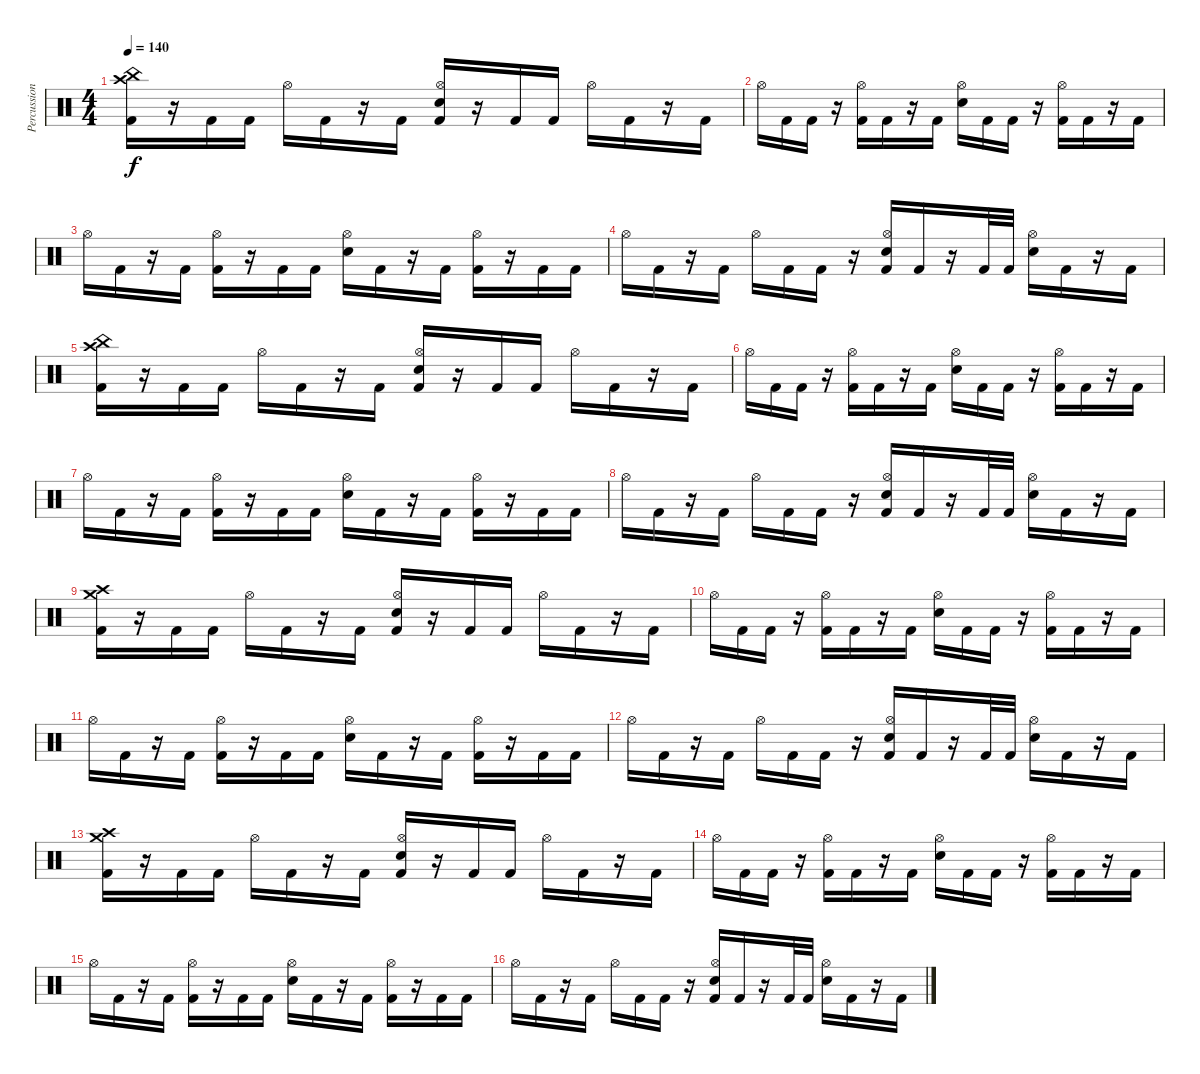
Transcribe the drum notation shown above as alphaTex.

\track ("Percussion" "Percussion") {instrument percussion}
\staff {score}
\articulation defaults
\ts (4 4)
\tempo 140
\clef neutral
\ks c
("Crash high (hit)" "China (hit)" "Kick (hit) 2").16{dy f} r.16 "Kick (hit) 2".16 "Kick (hit) 2".16 "Hi-Hat (open)".16 "Kick (hit) 2".16 r.16 "Kick (hit) 2".16 ("Hi-Hat (open)" "Snare (hit) 2" "Kick (hit) 2").16 r.16 "Kick (hit) 2".16 "Kick (hit) 2".16 "Hi-Hat (open)".16 "Kick (hit) 2".16 r.16 "Kick (hit) 2".16 |
"Hi-Hat (open)".16 "Kick (hit) 2".16 "Kick (hit) 2".16 r.16 ("Hi-Hat (open)" "Kick (hit) 2").16 "Kick (hit) 2".16 r.16 "Kick (hit) 2".16 ("Hi-Hat (open)" "Snare (hit) 2").16 "Kick (hit) 2".16 "Kick (hit) 2".16 r.16 ("Hi-Hat (open)" "Kick (hit) 2").16 "Kick (hit) 2".16 r.16 "Kick (hit) 2".16 |
"Hi-Hat (open)".16 "Kick (hit) 2".16 r.16 "Kick (hit) 2".16 ("Hi-Hat (open)" "Kick (hit) 2").16 r.16 "Kick (hit) 2".16 "Kick (hit) 2".16 ("Hi-Hat (open)" "Snare (hit) 2").16 "Kick (hit) 2".16 r.16 "Kick (hit) 2".16 ("Hi-Hat (open)" "Kick (hit) 2").16 r.16 "Kick (hit) 2".16 "Kick (hit) 2".16 |
"Hi-Hat (open)".16 "Kick (hit) 2".16 r.16 "Kick (hit) 2".16 "Hi-Hat (open)".16 "Kick (hit) 2".16 "Kick (hit) 2".16 r.16 ("Hi-Hat (open)" "Snare (hit) 2" "Kick (hit) 2").16 "Kick (hit) 2".16 r.16 "Kick (hit) 2".32 "Kick (hit) 2".32 ("Hi-Hat (open)" "Snare (hit) 2").16 "Kick (hit) 2".16 r.16 "Kick (hit) 2".16 |
("Crash high (hit)" "China (hit)" "Kick (hit) 2").16 r.16 "Kick (hit) 2".16 "Kick (hit) 2".16 "Hi-Hat (open)".16 "Kick (hit) 2".16 r.16 "Kick (hit) 2".16 ("Hi-Hat (open)" "Snare (hit) 2" "Kick (hit) 2").16 r.16 "Kick (hit) 2".16 "Kick (hit) 2".16 "Hi-Hat (open)".16 "Kick (hit) 2".16 r.16 "Kick (hit) 2".16 |
"Hi-Hat (open)".16 "Kick (hit) 2".16 "Kick (hit) 2".16 r.16 ("Hi-Hat (open)" "Kick (hit) 2").16 "Kick (hit) 2".16 r.16 "Kick (hit) 2".16 ("Hi-Hat (open)" "Snare (hit) 2").16 "Kick (hit) 2".16 "Kick (hit) 2".16 r.16 ("Hi-Hat (open)" "Kick (hit) 2").16 "Kick (hit) 2".16 r.16 "Kick (hit) 2".16 |
"Hi-Hat (open)".16 "Kick (hit) 2".16 r.16 "Kick (hit) 2".16 ("Hi-Hat (open)" "Kick (hit) 2").16 r.16 "Kick (hit) 2".16 "Kick (hit) 2".16 ("Hi-Hat (open)" "Snare (hit) 2").16 "Kick (hit) 2".16 r.16 "Kick (hit) 2".16 ("Hi-Hat (open)" "Kick (hit) 2").16 r.16 "Kick (hit) 2".16 "Kick (hit) 2".16 |
"Hi-Hat (open)".16 "Kick (hit) 2".16 r.16 "Kick (hit) 2".16 "Hi-Hat (open)".16 "Kick (hit) 2".16 "Kick (hit) 2".16 r.16 ("Hi-Hat (open)" "Snare (hit) 2" "Kick (hit) 2").16 "Kick (hit) 2".16 r.16 "Kick (hit) 2".32 "Kick (hit) 2".32 ("Hi-Hat (open)" "Snare (hit) 2").16 "Kick (hit) 2".16 r.16 "Kick (hit) 2".16 |
("Crash high (hit)" "Crash medium (hit)" "Kick (hit) 2").16 r.16 "Kick (hit) 2".16 "Kick (hit) 2".16 "Hi-Hat (open)".16 "Kick (hit) 2".16 r.16 "Kick (hit) 2".16 ("Hi-Hat (open)" "Snare (hit) 2" "Kick (hit) 2").16 r.16 "Kick (hit) 2".16 "Kick (hit) 2".16 "Hi-Hat (open)".16 "Kick (hit) 2".16 r.16 "Kick (hit) 2".16 |
"Hi-Hat (open)".16 "Kick (hit) 2".16 "Kick (hit) 2".16 r.16 ("Hi-Hat (open)" "Kick (hit) 2").16 "Kick (hit) 2".16 r.16 "Kick (hit) 2".16 ("Hi-Hat (open)" "Snare (hit) 2").16 "Kick (hit) 2".16 "Kick (hit) 2".16 r.16 ("Hi-Hat (open)" "Kick (hit) 2").16 "Kick (hit) 2".16 r.16 "Kick (hit) 2".16 |
"Hi-Hat (open)".16 "Kick (hit) 2".16 r.16 "Kick (hit) 2".16 ("Hi-Hat (open)" "Kick (hit) 2").16 r.16 "Kick (hit) 2".16 "Kick (hit) 2".16 ("Hi-Hat (open)" "Snare (hit) 2").16 "Kick (hit) 2".16 r.16 "Kick (hit) 2".16 ("Hi-Hat (open)" "Kick (hit) 2").16 r.16 "Kick (hit) 2".16 "Kick (hit) 2".16 |
"Hi-Hat (open)".16 "Kick (hit) 2".16 r.16 "Kick (hit) 2".16 "Hi-Hat (open)".16 "Kick (hit) 2".16 "Kick (hit) 2".16 r.16 ("Hi-Hat (open)" "Snare (hit) 2" "Kick (hit) 2").16 "Kick (hit) 2".16 r.16 "Kick (hit) 2".32 "Kick (hit) 2".32 ("Hi-Hat (open)" "Snare (hit) 2").16 "Kick (hit) 2".16 r.16 "Kick (hit) 2".16 |
("Crash high (hit)" "Crash medium (hit)" "Kick (hit) 2").16 r.16 "Kick (hit) 2".16 "Kick (hit) 2".16 "Hi-Hat (open)".16 "Kick (hit) 2".16 r.16 "Kick (hit) 2".16 ("Hi-Hat (open)" "Snare (hit) 2" "Kick (hit) 2").16 r.16 "Kick (hit) 2".16 "Kick (hit) 2".16 "Hi-Hat (open)".16 "Kick (hit) 2".16 r.16 "Kick (hit) 2".16 |
"Hi-Hat (open)".16 "Kick (hit) 2".16 "Kick (hit) 2".16 r.16 ("Hi-Hat (open)" "Kick (hit) 2").16 "Kick (hit) 2".16 r.16 "Kick (hit) 2".16 ("Hi-Hat (open)" "Snare (hit) 2").16 "Kick (hit) 2".16 "Kick (hit) 2".16 r.16 ("Hi-Hat (open)" "Kick (hit) 2").16 "Kick (hit) 2".16 r.16 "Kick (hit) 2".16 |
"Hi-Hat (open)".16 "Kick (hit) 2".16 r.16 "Kick (hit) 2".16 ("Hi-Hat (open)" "Kick (hit) 2").16 r.16 "Kick (hit) 2".16 "Kick (hit) 2".16 ("Hi-Hat (open)" "Snare (hit) 2").16 "Kick (hit) 2".16 r.16 "Kick (hit) 2".16 ("Hi-Hat (open)" "Kick (hit) 2").16 r.16 "Kick (hit) 2".16 "Kick (hit) 2".16 |
"Hi-Hat (open)".16 "Kick (hit) 2".16 r.16 "Kick (hit) 2".16 "Hi-Hat (open)".16 "Kick (hit) 2".16 "Kick (hit) 2".16 r.16 ("Hi-Hat (open)" "Snare (hit) 2" "Kick (hit) 2").16 "Kick (hit) 2".16 r.16 "Kick (hit) 2".32 "Kick (hit) 2".32 ("Hi-Hat (open)" "Snare (hit) 2").16 "Kick (hit) 2".16 r.16 "Kick (hit) 2".16
